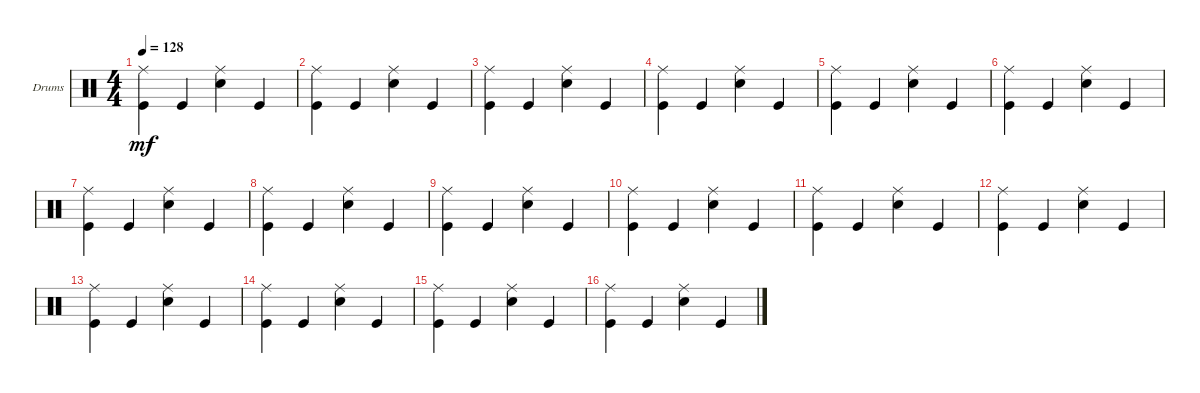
\defaultSystemsLayout 4
\bracketExtendMode groupsimilarinstruments
\firstSystemTrackNameOrientation horizontal
\otherSystemsTrackNameOrientation horizontal
\track ("Drumkit" "Drums") {instrument percussion}
\staff {score}
\articulation defaults
\ts (4 4)
\tempo 128
\clef neutral
\ks c
("Kick (hit)" "Ride (middle)").4{dy mf} "Kick (hit)".4 ("Snare (hit) 2" "Ride (middle)").4 "Kick (hit)".4 |
("Kick (hit)" "Ride (middle)").4 "Kick (hit)".4 ("Snare (hit) 2" "Ride (middle)").4 "Kick (hit)".4 |
("Kick (hit)" "Ride (middle)").4 "Kick (hit)".4 ("Snare (hit) 2" "Ride (middle)").4 "Kick (hit)".4 |
("Kick (hit)" "Ride (middle)").4 "Kick (hit)".4 ("Snare (hit) 2" "Ride (middle)").4 "Kick (hit)".4 |
("Kick (hit)" "Ride (middle)").4 "Kick (hit)".4 ("Snare (hit) 2" "Ride (middle)").4 "Kick (hit)".4 |
("Kick (hit)" "Ride (middle)").4 "Kick (hit)".4 ("Snare (hit) 2" "Ride (middle)").4 "Kick (hit)".4 |
("Kick (hit)" "Ride (middle)").4 "Kick (hit)".4 ("Snare (hit) 2" "Ride (middle)").4 "Kick (hit)".4 |
("Kick (hit)" "Ride (middle)").4 "Kick (hit)".4 ("Snare (hit) 2" "Ride (middle)").4 "Kick (hit)".4 |
("Kick (hit)" "Ride (middle)").4 "Kick (hit)".4 ("Snare (hit) 2" "Ride (middle)").4 "Kick (hit)".4 |
("Kick (hit)" "Ride (middle)").4 "Kick (hit)".4 ("Snare (hit) 2" "Ride (middle)").4 "Kick (hit)".4 |
("Kick (hit)" "Ride (middle)").4 "Kick (hit)".4 ("Snare (hit) 2" "Ride (middle)").4 "Kick (hit)".4 |
("Kick (hit)" "Ride (middle)").4 "Kick (hit)".4 ("Snare (hit) 2" "Ride (middle)").4 "Kick (hit)".4 |
("Kick (hit)" "Ride (middle)").4 "Kick (hit)".4 ("Snare (hit) 2" "Ride (middle)").4 "Kick (hit)".4 |
("Kick (hit)" "Ride (middle)").4 "Kick (hit)".4 ("Snare (hit) 2" "Ride (middle)").4 "Kick (hit)".4 |
("Kick (hit)" "Ride (middle)").4 "Kick (hit)".4 ("Snare (hit) 2" "Ride (middle)").4 "Kick (hit)".4 |
("Kick (hit)" "Ride (middle)").4 "Kick (hit)".4 ("Snare (hit) 2" "Ride (middle)").4 "Kick (hit)".4
